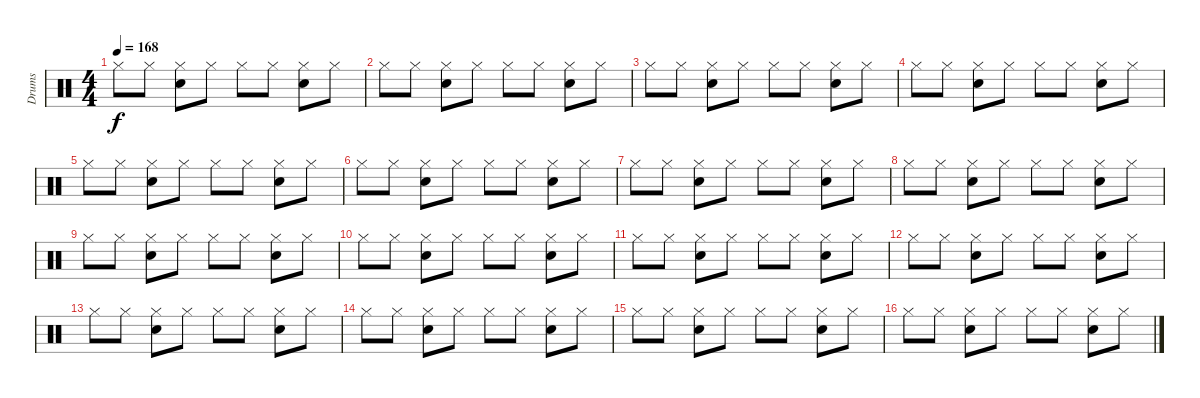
\track ("Drums" "Drums") {instrument percussion}
\staff {score}
\articulation defaults
\ts (4 4)
\tempo 168
\clef neutral
\ks c "Hi-Hat (closed)".8{dy f} "Hi-Hat (closed)".8
("Hi-Hat (closed)" "Electric Snare (hit)").8 "Hi-Hat (closed)".8 "Hi-Hat (closed)".8 "Hi-Hat (closed)".8 ("Hi-Hat (closed)" "Electric Snare (hit)").8 "Hi-Hat (closed)".8 |
"Hi-Hat (closed)".8 "Hi-Hat (closed)".8 ("Hi-Hat (closed)" "Electric Snare (hit)").8 "Hi-Hat (closed)".8 "Hi-Hat (closed)".8 "Hi-Hat (closed)".8 ("Hi-Hat (closed)" "Electric Snare (hit)").8 "Hi-Hat (closed)".8 |
"Hi-Hat (closed)".8 "Hi-Hat (closed)".8 ("Hi-Hat (closed)" "Electric Snare (hit)").8 "Hi-Hat (closed)".8 "Hi-Hat (closed)".8 "Hi-Hat (closed)".8 ("Hi-Hat (closed)" "Electric Snare (hit)").8 "Hi-Hat (closed)".8 |
"Hi-Hat (closed)".8 "Hi-Hat (closed)".8 ("Hi-Hat (closed)" "Electric Snare (hit)").8 "Hi-Hat (closed)".8 "Hi-Hat (closed)".8 "Hi-Hat (closed)".8 ("Hi-Hat (closed)" "Electric Snare (hit)").8 "Hi-Hat (closed)".8 |
"Hi-Hat (closed)".8 "Hi-Hat (closed)".8 ("Hi-Hat (closed)" "Electric Snare (hit)").8 "Hi-Hat (closed)".8 "Hi-Hat (closed)".8 "Hi-Hat (closed)".8 ("Hi-Hat (closed)" "Electric Snare (hit)").8 "Hi-Hat (closed)".8 |
"Hi-Hat (closed)".8 "Hi-Hat (closed)".8 ("Hi-Hat (closed)" "Electric Snare (hit)").8 "Hi-Hat (closed)".8 "Hi-Hat (closed)".8 "Hi-Hat (closed)".8 ("Hi-Hat (closed)" "Electric Snare (hit)").8 "Hi-Hat (closed)".8 |
"Hi-Hat (closed)".8 "Hi-Hat (closed)".8 ("Hi-Hat (closed)" "Electric Snare (hit)").8 "Hi-Hat (closed)".8 "Hi-Hat (closed)".8 "Hi-Hat (closed)".8 ("Hi-Hat (closed)" "Electric Snare (hit)").8 "Hi-Hat (closed)".8 |
"Hi-Hat (closed)".8 "Hi-Hat (closed)".8 ("Hi-Hat (closed)" "Electric Snare (hit)").8 "Hi-Hat (closed)".8 "Hi-Hat (closed)".8 "Hi-Hat (closed)".8 ("Hi-Hat (closed)" "Electric Snare (hit)").8 "Hi-Hat (closed)".8 |
"Hi-Hat (closed)".8 "Hi-Hat (closed)".8 ("Hi-Hat (closed)" "Electric Snare (hit)").8 "Hi-Hat (closed)".8 "Hi-Hat (closed)".8 "Hi-Hat (closed)".8 ("Hi-Hat (closed)" "Electric Snare (hit)").8 "Hi-Hat (closed)".8 |
"Hi-Hat (closed)".8 "Hi-Hat (closed)".8 ("Hi-Hat (closed)" "Electric Snare (hit)").8 "Hi-Hat (closed)".8 "Hi-Hat (closed)".8 "Hi-Hat (closed)".8 ("Hi-Hat (closed)" "Electric Snare (hit)").8 "Hi-Hat (closed)".8 |
"Hi-Hat (closed)".8 "Hi-Hat (closed)".8 ("Hi-Hat (closed)" "Electric Snare (hit)").8 "Hi-Hat (closed)".8 "Hi-Hat (closed)".8 "Hi-Hat (closed)".8 ("Hi-Hat (closed)" "Electric Snare (hit)").8 "Hi-Hat (closed)".8 |
"Hi-Hat (closed)".8 "Hi-Hat (closed)".8 ("Hi-Hat (closed)" "Electric Snare (hit)").8 "Hi-Hat (closed)".8 "Hi-Hat (closed)".8 "Hi-Hat (closed)".8 ("Hi-Hat (closed)" "Electric Snare (hit)").8 "Hi-Hat (closed)".8 |
"Hi-Hat (closed)".8 "Hi-Hat (closed)".8 ("Hi-Hat (closed)" "Electric Snare (hit)").8 "Hi-Hat (closed)".8 "Hi-Hat (closed)".8 "Hi-Hat (closed)".8 ("Hi-Hat (closed)" "Electric Snare (hit)").8 "Hi-Hat (closed)".8 |
"Hi-Hat (closed)".8 "Hi-Hat (closed)".8 ("Hi-Hat (closed)" "Electric Snare (hit)").8 "Hi-Hat (closed)".8 "Hi-Hat (closed)".8 "Hi-Hat (closed)".8 ("Hi-Hat (closed)" "Electric Snare (hit)").8 "Hi-Hat (closed)".8 |
"Hi-Hat (closed)".8 "Hi-Hat (closed)".8 ("Hi-Hat (closed)" "Electric Snare (hit)").8 "Hi-Hat (closed)".8 "Hi-Hat (closed)".8 "Hi-Hat (closed)".8 ("Hi-Hat (closed)" "Electric Snare (hit)").8 "Hi-Hat (closed)".8 |
"Hi-Hat (closed)".8 "Hi-Hat (closed)".8 ("Hi-Hat (closed)" "Electric Snare (hit)").8 "Hi-Hat (closed)".8 "Hi-Hat (closed)".8 "Hi-Hat (closed)".8 ("Hi-Hat (closed)" "Electric Snare (hit)").8 "Hi-Hat (closed)".8
